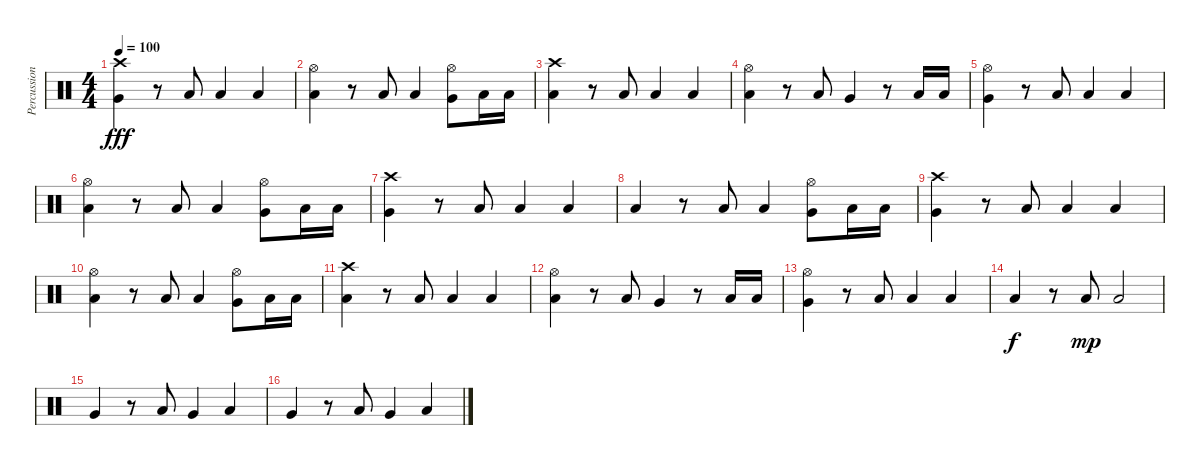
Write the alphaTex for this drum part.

\track ("Percussion" "Percussion") {instrument percussion}
\staff {score}
\articulation defaults
\ts (4 4)
\tempo 100
\clef neutral
\ks c
("Very Low Tom (hit)" "Crash high (hit)").4{dy fff} r.8 "Low Tom (hit)".8 "Low Tom (hit)".4 "Low Floor Tom (hit)".4 |
("Low Tom (hit)" "Hi-Hat (open)").4 r.8 "Low Tom (hit)".8 "Low Tom (hit)".4 ("Very Low Tom (hit)" "Hi-Hat (open)").8 "Low Floor Tom (hit)".16 "Low Floor Tom (hit)".16 |
("Low Tom (hit)" "Crash high (hit)").4 r.8 "Low Tom (hit)".8 "Low Tom (hit)".4 "Low Floor Tom (hit)".4 |
("Low Tom (hit)" "Hi-Hat (open)").4 r.8 "Low Tom (hit)".8 "Very Low Tom (hit)".4 r.8 "Low Floor Tom (hit)".16 "Low Floor Tom (hit)".16 |
("Very Low Tom (hit)" "Hi-Hat (open)").4 r.8 "Low Tom (hit)".8 "Low Tom (hit)".4 "Low Floor Tom (hit)".4 |
("Low Tom (hit)" "Hi-Hat (open)").4 r.8 "Low Tom (hit)".8 "Low Tom (hit)".4 ("Very Low Tom (hit)" "Hi-Hat (open)").8 "Low Floor Tom (hit)".16 "Low Floor Tom (hit)".16 |
("Very Low Tom (hit)" "Crash high (hit)").4 r.8 "Low Tom (hit)".8 "Low Tom (hit)".4 "Low Floor Tom (hit)".4 |
"Low Tom (hit)".4 r.8 "Low Tom (hit)".8 "Low Tom (hit)".4 ("Very Low Tom (hit)" "Hi-Hat (open)").8 "Low Floor Tom (hit)".16 "Low Floor Tom (hit)".16 |
("Very Low Tom (hit)" "Crash high (hit)").4 r.8 "Low Tom (hit)".8 "Low Tom (hit)".4 "Low Floor Tom (hit)".4 |
("Low Tom (hit)" "Hi-Hat (open)").4 r.8 "Low Tom (hit)".8 "Low Tom (hit)".4 ("Very Low Tom (hit)" "Hi-Hat (open)").8 "Low Floor Tom (hit)".16 "Low Floor Tom (hit)".16 |
("Low Tom (hit)" "Crash high (hit)").4 r.8 "Low Tom (hit)".8 "Low Tom (hit)".4 "Low Floor Tom (hit)".4 |
("Low Tom (hit)" "Hi-Hat (open)").4 r.8 "Low Tom (hit)".8 "Very Low Tom (hit)".4 r.8 "Low Floor Tom (hit)".16 "Low Floor Tom (hit)".16 |
("Very Low Tom (hit)" "Hi-Hat (open)").4 r.8 "Low Tom (hit)".8 "Low Tom (hit)".4 "Low Floor Tom (hit)".4 |
"Low Tom (hit)".4{dy f} r.8 "Low Tom (hit)".8{dy mp} "Low Tom (hit)".2 |
"Very Low Tom (hit)".4 r.8 "Low Tom (hit)".8 "Very Low Tom (hit)".4 "Low Floor Tom (hit)".4 |
"Very Low Tom (hit)".4 r.8 "Low Tom (hit)".8 "Very Low Tom (hit)".4 "Low Floor Tom (hit)".4
